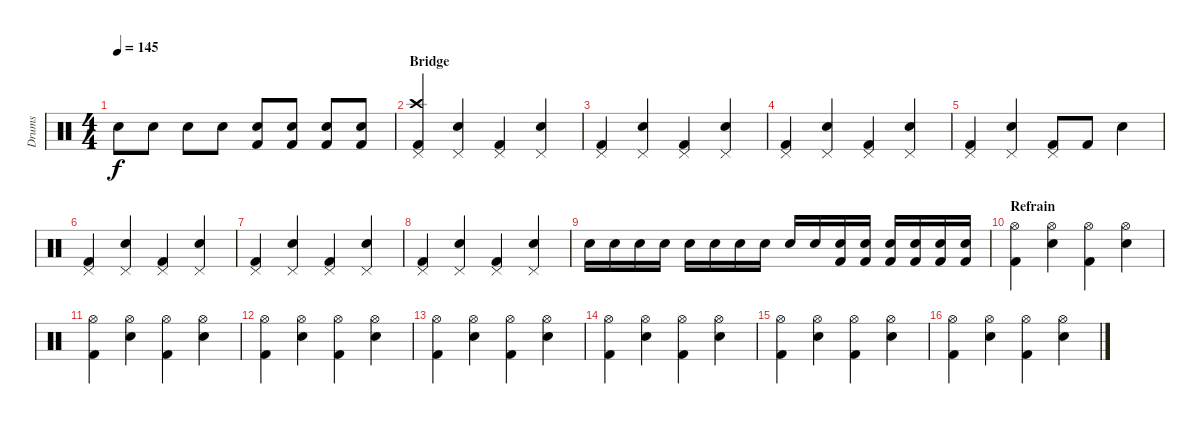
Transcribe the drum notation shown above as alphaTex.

\track ("Drums" "Drums") {instrument percussion}
\staff {score}
\articulation defaults
\ts (4 4)
\tempo 145
\clef neutral
\ks c "Electric Snare (hit)".8{dy f} "Electric Snare (hit)".8 "Electric Snare (hit)".8 "Electric Snare (hit)".8
("Kick (hit) 2" "Electric Snare (hit)").8 ("Kick (hit) 2" "Electric Snare (hit)").8 ("Kick (hit) 2" "Electric Snare (hit)").8 ("Kick (hit) 2" "Electric Snare (hit)").8 |
\section ("" "Bridge")
("Kick (hit) 2" "Crash high (hit)" "Pedal Hi-Hat (hit)").4 ("Electric Snare (hit)" "Pedal Hi-Hat (hit)").4 ("Kick (hit) 2" "Pedal Hi-Hat (hit)").4 ("Electric Snare (hit)" "Pedal Hi-Hat (hit)").4 |
("Kick (hit) 2" "Pedal Hi-Hat (hit)").4 ("Electric Snare (hit)" "Pedal Hi-Hat (hit)").4 ("Kick (hit) 2" "Pedal Hi-Hat (hit)").4 ("Electric Snare (hit)" "Pedal Hi-Hat (hit)").4 |
("Kick (hit) 2" "Pedal Hi-Hat (hit)").4 ("Electric Snare (hit)" "Pedal Hi-Hat (hit)").4 ("Kick (hit) 2" "Pedal Hi-Hat (hit)").4 ("Electric Snare (hit)" "Pedal Hi-Hat (hit)").4 |
("Kick (hit) 2" "Pedal Hi-Hat (hit)").4 ("Electric Snare (hit)" "Pedal Hi-Hat (hit)").4 ("Kick (hit) 2" "Pedal Hi-Hat (hit)").8 "Kick (hit) 2".8 "Electric Snare (hit)".4 |
("Kick (hit) 2" "Pedal Hi-Hat (hit)").4 ("Electric Snare (hit)" "Pedal Hi-Hat (hit)").4 ("Kick (hit) 2" "Pedal Hi-Hat (hit)").4 ("Electric Snare (hit)" "Pedal Hi-Hat (hit)").4 |
("Kick (hit) 2" "Pedal Hi-Hat (hit)").4 ("Electric Snare (hit)" "Pedal Hi-Hat (hit)").4 ("Kick (hit) 2" "Pedal Hi-Hat (hit)").4 ("Electric Snare (hit)" "Pedal Hi-Hat (hit)").4 |
("Kick (hit) 2" "Pedal Hi-Hat (hit)").4 ("Electric Snare (hit)" "Pedal Hi-Hat (hit)").4 ("Kick (hit) 2" "Pedal Hi-Hat (hit)").4 ("Electric Snare (hit)" "Pedal Hi-Hat (hit)").4 |
"Electric Snare (hit)".16 "Electric Snare (hit)".16 "Electric Snare (hit)".16 "Electric Snare (hit)".16 "Electric Snare (hit)".16 "Electric Snare (hit)".16 "Electric Snare (hit)".16 "Electric Snare (hit)".16 "Electric Snare (hit)".16 "Electric Snare (hit)".16 ("Electric Snare (hit)" "Kick (hit) 2").16 ("Electric Snare (hit)" "Kick (hit) 2").16 ("Electric Snare (hit)" "Kick (hit) 2").16 ("Electric Snare (hit)" "Kick (hit) 2").16 ("Electric Snare (hit)" "Kick (hit) 2").16 ("Electric Snare (hit)" "Kick (hit) 2").16 |
\section ("" "Refrain")
("Kick (hit) 2" "Hi-Hat (open)").4 ("Electric Snare (hit)" "Hi-Hat (open)").4 ("Kick (hit) 2" "Hi-Hat (open)").4 ("Electric Snare (hit)" "Hi-Hat (open)").4 |
("Kick (hit) 2" "Hi-Hat (open)").4 ("Electric Snare (hit)" "Hi-Hat (open)").4 ("Kick (hit) 2" "Hi-Hat (open)").4 ("Electric Snare (hit)" "Hi-Hat (open)").4 |
("Kick (hit) 2" "Hi-Hat (open)").4 ("Electric Snare (hit)" "Hi-Hat (open)").4 ("Kick (hit) 2" "Hi-Hat (open)").4 ("Electric Snare (hit)" "Hi-Hat (open)").4 |
("Kick (hit) 2" "Hi-Hat (open)").4 ("Electric Snare (hit)" "Hi-Hat (open)").4 ("Kick (hit) 2" "Hi-Hat (open)").4 ("Electric Snare (hit)" "Hi-Hat (open)").4 |
("Kick (hit) 2" "Hi-Hat (open)").4 ("Electric Snare (hit)" "Hi-Hat (open)").4 ("Kick (hit) 2" "Hi-Hat (open)").4 ("Electric Snare (hit)" "Hi-Hat (open)").4 |
("Kick (hit) 2" "Hi-Hat (open)").4 ("Electric Snare (hit)" "Hi-Hat (open)").4 ("Kick (hit) 2" "Hi-Hat (open)").4 ("Electric Snare (hit)" "Hi-Hat (open)").4 |
("Kick (hit) 2" "Hi-Hat (open)").4 ("Electric Snare (hit)" "Hi-Hat (open)").4 ("Kick (hit) 2" "Hi-Hat (open)").4 ("Electric Snare (hit)" "Hi-Hat (open)").4
